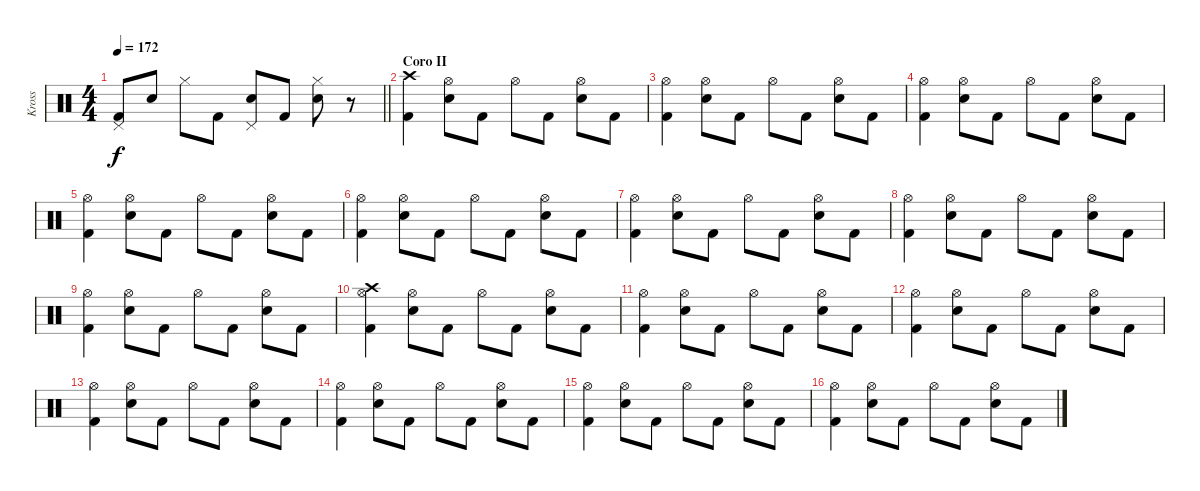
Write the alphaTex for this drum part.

\track ("Kross" "Kross") {instrument percussion}
\staff {score}
\articulation defaults
\ts (4 4)
\tempo 172
\clef neutral
\barLineRight lightlight
\ks c
("Pedal Hi-Hat (hit)" "Kick (hit) 2").8{dy f} "Electric Snare (hit)".8 "Hi-Hat (closed)".8 "Kick (hit) 2".8 ("Pedal Hi-Hat (hit)" "Electric Snare (hit)").8 "Kick (hit) 2".8 ("Hi-Hat (closed)" "Electric Snare (hit)").8 r.8 |
\section ("" "Coro II")
("Crash high (hit)" "Kick (hit) 2").4 ("Hi-Hat (open)" "Electric Snare (hit)").8 "Kick (hit) 2".8 "Hi-Hat (open)".8 "Kick (hit) 2".8 ("Hi-Hat (open)" "Electric Snare (hit)").8 "Kick (hit) 2".8 |
("Hi-Hat (open)" "Kick (hit) 2").4 ("Hi-Hat (open)" "Electric Snare (hit)").8 "Kick (hit) 2".8 "Hi-Hat (open)".8 "Kick (hit) 2".8 ("Hi-Hat (open)" "Electric Snare (hit)").8 "Kick (hit) 2".8 |
("Hi-Hat (open)" "Kick (hit) 2").4 ("Hi-Hat (open)" "Electric Snare (hit)").8 "Kick (hit) 2".8 "Hi-Hat (open)".8 "Kick (hit) 2".8 ("Hi-Hat (open)" "Electric Snare (hit)").8 "Kick (hit) 2".8 |
("Hi-Hat (open)" "Kick (hit) 2").4 ("Hi-Hat (open)" "Electric Snare (hit)").8 "Kick (hit) 2".8 "Hi-Hat (open)".8 "Kick (hit) 2".8 ("Hi-Hat (open)" "Electric Snare (hit)").8 "Kick (hit) 2".8 |
("Hi-Hat (open)" "Kick (hit) 2").4 ("Hi-Hat (open)" "Electric Snare (hit)").8 "Kick (hit) 2".8 "Hi-Hat (open)".8 "Kick (hit) 2".8 ("Hi-Hat (open)" "Electric Snare (hit)").8 "Kick (hit) 2".8 |
("Hi-Hat (open)" "Kick (hit) 2").4 ("Hi-Hat (open)" "Electric Snare (hit)").8 "Kick (hit) 2".8 "Hi-Hat (open)".8 "Kick (hit) 2".8 ("Hi-Hat (open)" "Electric Snare (hit)").8 "Kick (hit) 2".8 |
("Hi-Hat (open)" "Kick (hit) 2").4 ("Hi-Hat (open)" "Electric Snare (hit)").8 "Kick (hit) 2".8 "Hi-Hat (open)".8 "Kick (hit) 2".8 ("Hi-Hat (open)" "Electric Snare (hit)").8 "Kick (hit) 2".8 |
("Hi-Hat (open)" "Kick (hit) 2").4 ("Hi-Hat (open)" "Electric Snare (hit)").8 "Kick (hit) 2".8 "Hi-Hat (open)".8 "Kick (hit) 2".8 ("Hi-Hat (open)" "Electric Snare (hit)").8 "Kick (hit) 2".8 |
("Crash high (hit)" "Hi-Hat (open)" "Kick (hit) 2").4 ("Hi-Hat (open)" "Electric Snare (hit)").8 "Kick (hit) 2".8 "Hi-Hat (open)".8 "Kick (hit) 2".8 ("Hi-Hat (open)" "Electric Snare (hit)").8 "Kick (hit) 2".8 |
("Hi-Hat (open)" "Kick (hit) 2").4 ("Hi-Hat (open)" "Electric Snare (hit)").8 "Kick (hit) 2".8 "Hi-Hat (open)".8 "Kick (hit) 2".8 ("Hi-Hat (open)" "Electric Snare (hit)").8 "Kick (hit) 2".8 |
("Hi-Hat (open)" "Kick (hit) 2").4 ("Hi-Hat (open)" "Electric Snare (hit)").8 "Kick (hit) 2".8 "Hi-Hat (open)".8 "Kick (hit) 2".8 ("Hi-Hat (open)" "Electric Snare (hit)").8 "Kick (hit) 2".8 |
("Hi-Hat (open)" "Kick (hit) 2").4 ("Hi-Hat (open)" "Electric Snare (hit)").8 "Kick (hit) 2".8 "Hi-Hat (open)".8 "Kick (hit) 2".8 ("Hi-Hat (open)" "Electric Snare (hit)").8 "Kick (hit) 2".8 |
("Hi-Hat (open)" "Kick (hit) 2").4 ("Hi-Hat (open)" "Electric Snare (hit)").8 "Kick (hit) 2".8 "Hi-Hat (open)".8 "Kick (hit) 2".8 ("Hi-Hat (open)" "Electric Snare (hit)").8 "Kick (hit) 2".8 |
("Hi-Hat (open)" "Kick (hit) 2").4 ("Hi-Hat (open)" "Electric Snare (hit)").8 "Kick (hit) 2".8 "Hi-Hat (open)".8 "Kick (hit) 2".8 ("Hi-Hat (open)" "Electric Snare (hit)").8 "Kick (hit) 2".8 |
("Hi-Hat (open)" "Kick (hit) 2").4 ("Hi-Hat (open)" "Electric Snare (hit)").8 "Kick (hit) 2".8 "Hi-Hat (open)".8 "Kick (hit) 2".8 ("Hi-Hat (open)" "Electric Snare (hit)").8 "Kick (hit) 2".8
